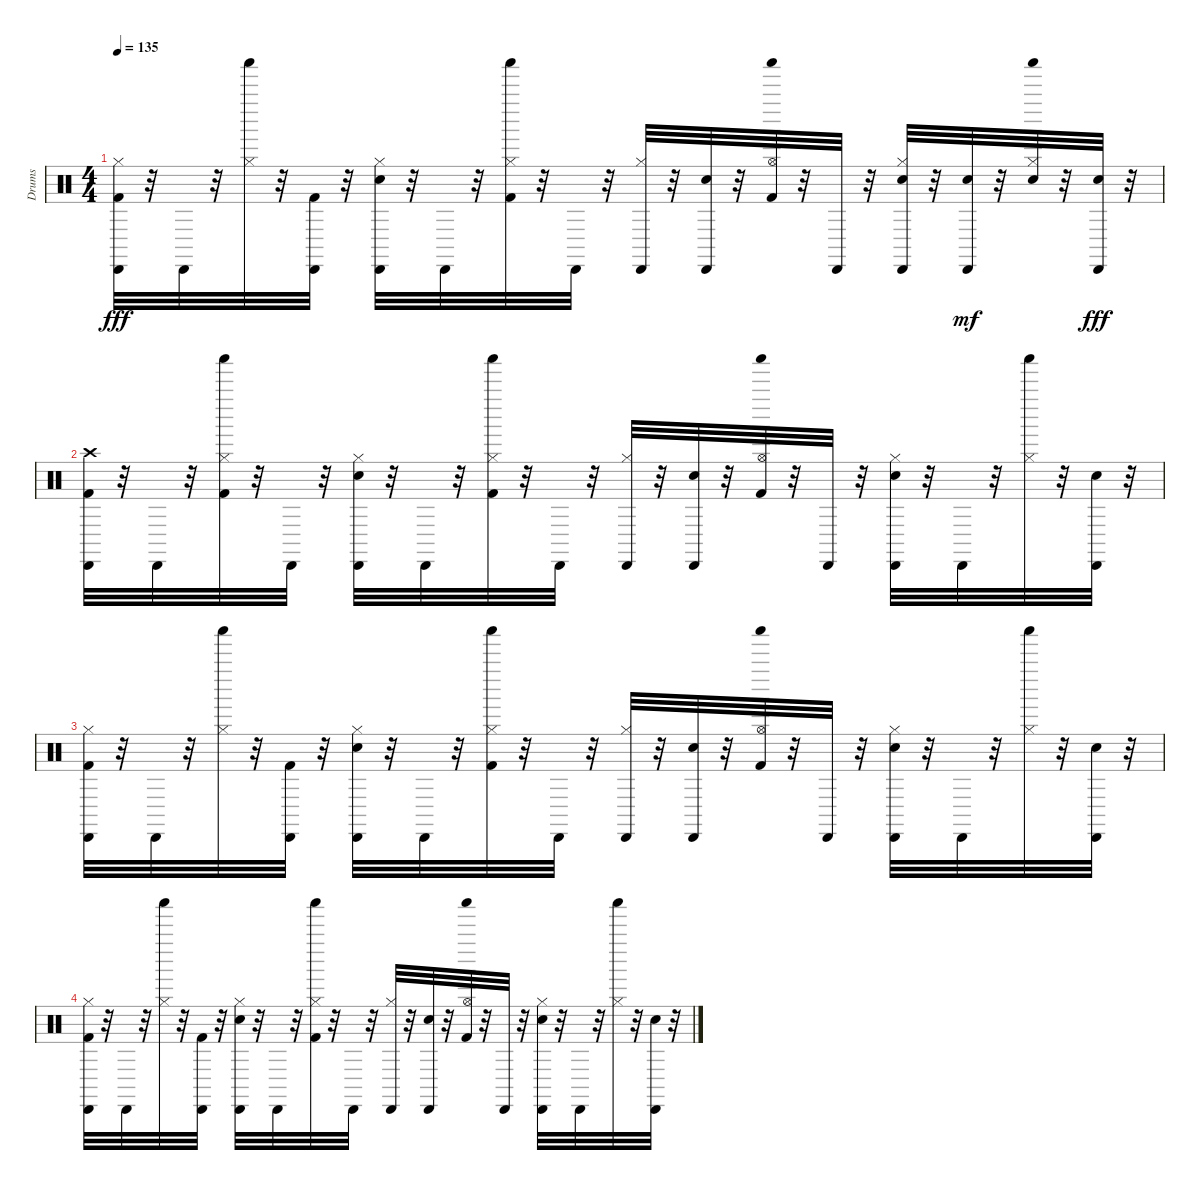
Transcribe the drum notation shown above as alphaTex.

\track ("Drums" "Drums") {instrument percussion}
\staff {score}
\articulation defaults
\ts (4 4)
\tempo 135
\clef neutral
\ks c
("Hi-Hat (closed)" "Kick (hit) 2" "Cabasa (hit)").32{dy fff} r.32 "Cabasa (hit)".32 r.32 ("Shaker (hit)" "Hi-Hat (closed)").32 r.32 ("Kick (hit) 2" "Cabasa (hit)").32 r.32 ("Snare (hit) 2" "Hi-Hat (closed)" "Cabasa (hit)").32 r.32 "Cabasa (hit)".32 r.32 ("Kick (hit) 2" "Shaker (hit)" "Hi-Hat (closed)").32 r.32 "Cabasa (hit)".32 r.32 ("Hi-Hat (closed)" "Cabasa (hit)").32 r.32 ("Snare (hit) 2" "Cabasa (hit)").32 r.32 ("Kick (hit) 2" "Shaker (hit)" "Hi-Hat (open)").32 r.32 "Cabasa (hit)".32 r.32 ("Snare (hit) 2" "Hi-Hat (closed)" "Cabasa (hit)").32 r.32 ("Cabasa (hit)" "Snare (hit) 2").32{dy mf} r.32 ("Shaker (hit)" "Hi-Hat (closed)" "Snare (hit) 2").32 r.32 ("Snare (hit) 2" "Cabasa (hit)").32{dy fff} r.32 |
("Crash high (hit)" "Kick (hit) 2" "Cabasa (hit)").32 r.32 "Cabasa (hit)".32 r.32 ("Shaker (hit)" "Hi-Hat (closed)" "Kick (hit) 2").32 r.32 "Cabasa (hit)".32 r.32 ("Snare (hit) 2" "Hi-Hat (closed)" "Cabasa (hit)").32 r.32 "Cabasa (hit)".32 r.32 ("Kick (hit) 2" "Shaker (hit)" "Hi-Hat (closed)").32 r.32 "Cabasa (hit)".32 r.32 ("Hi-Hat (closed)" "Cabasa (hit)").32 r.32 ("Snare (hit) 2" "Cabasa (hit)").32 r.32 ("Kick (hit) 2" "Shaker (hit)" "Hi-Hat (open)").32 r.32 "Cabasa (hit)".32 r.32 ("Snare (hit) 2" "Hi-Hat (closed)" "Cabasa (hit)").32 r.32 "Cabasa (hit)".32 r.32 ("Shaker (hit)" "Hi-Hat (closed)").32 r.32 ("Snare (hit) 2" "Cabasa (hit)").32 r.32 |
("Hi-Hat (closed)" "Kick (hit) 2" "Cabasa (hit)").32 r.32 "Cabasa (hit)".32 r.32 ("Shaker (hit)" "Hi-Hat (closed)").32 r.32 ("Kick (hit) 2" "Cabasa (hit)").32 r.32 ("Snare (hit) 2" "Hi-Hat (closed)" "Cabasa (hit)").32 r.32 "Cabasa (hit)".32 r.32 ("Kick (hit) 2" "Shaker (hit)" "Hi-Hat (closed)").32 r.32 "Cabasa (hit)".32 r.32 ("Hi-Hat (closed)" "Cabasa (hit)").32 r.32 ("Snare (hit) 2" "Cabasa (hit)").32 r.32 ("Kick (hit) 2" "Shaker (hit)" "Hi-Hat (open)").32 r.32 "Cabasa (hit)".32 r.32 ("Snare (hit) 2" "Hi-Hat (closed)" "Cabasa (hit)").32 r.32 "Cabasa (hit)".32 r.32 ("Shaker (hit)" "Hi-Hat (closed)").32 r.32 ("Snare (hit) 2" "Cabasa (hit)").32 r.32 |
("Hi-Hat (closed)" "Kick (hit) 2" "Cabasa (hit)").32 r.32 "Cabasa (hit)".32 r.32 ("Shaker (hit)" "Hi-Hat (closed)").32 r.32 ("Kick (hit) 2" "Cabasa (hit)").32 r.32 ("Snare (hit) 2" "Hi-Hat (closed)" "Cabasa (hit)").32 r.32 "Cabasa (hit)".32 r.32 ("Kick (hit) 2" "Shaker (hit)" "Hi-Hat (closed)").32 r.32 "Cabasa (hit)".32 r.32 ("Hi-Hat (closed)" "Cabasa (hit)").32 r.32 ("Snare (hit) 2" "Cabasa (hit)").32 r.32 ("Kick (hit) 2" "Shaker (hit)" "Hi-Hat (open)").32 r.32 "Cabasa (hit)".32 r.32 ("Snare (hit) 2" "Hi-Hat (closed)" "Cabasa (hit)").32 r.32 "Cabasa (hit)".32 r.32 ("Shaker (hit)" "Hi-Hat (closed)").32 r.32 ("Snare (hit) 2" "Cabasa (hit)").32 r.32
